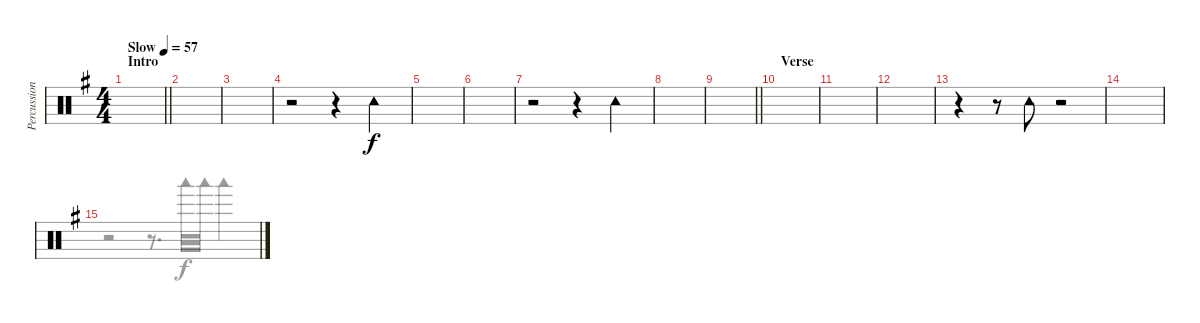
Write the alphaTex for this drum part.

\track ("Percussion 2" "Percussion") {instrument percussion}
\staff {score}
\articulation defaults
\voice
\ts (4 4)
\section ("" "Intro")
\tempo (57 "Slow")
\clef neutral
\barLineRight lightlight
\ks g
|
|
|
r.2 r.4 "Tambourine (hit)".4 |
|
|
r.2 r.4 "Tambourine (hit)".4 |
|
\barLineRight lightlight
|
\section ("" "Verse")
|
|
|
r.4 r.8 "Tambourine (hit)".8 r.2 |
|
|
\voice
\clef neutral
\ottava regular
\simile none
\barLineRight lightlight
\ks g
|
|
|
|
|
|
|
|
\barLineRight lightlight
|
|
|
|
|
|
r.2 r.8{d} "Woodblock low (hit)".32 "Woodblock low (hit)".32 "Woodblock low (hit)".4 |
